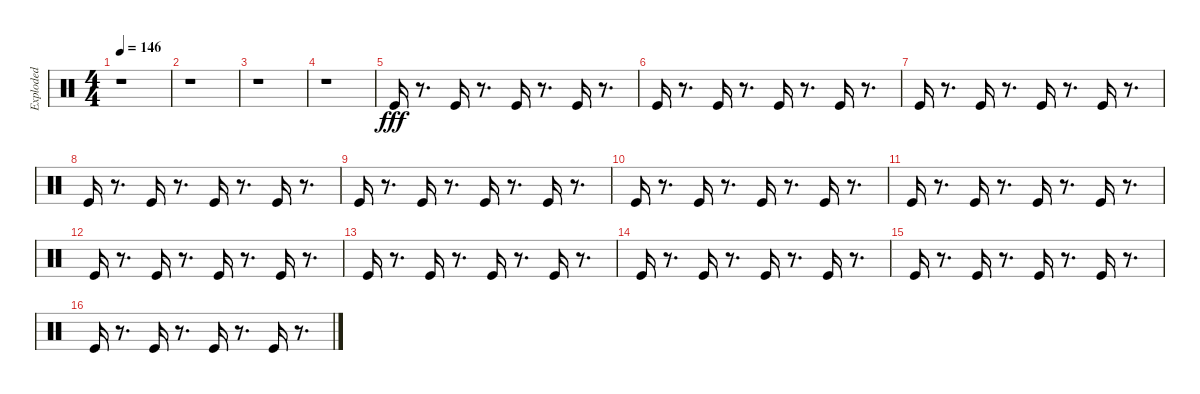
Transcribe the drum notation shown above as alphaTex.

\track ("Exploded" "Exploded") {instrument percussion}
\staff {score}
\articulation defaults
\ts (4 4)
\tempo 146
\clef neutral
\ks c
r.1{dy fff} |
r.1 |
r.1 |
r.1 |
"Kick (hit)".16 r.8{d} "Kick (hit)".16 r.8{d} "Kick (hit)".16 r.8{d} "Kick (hit)".16 r.8{d} |
"Kick (hit)".16 r.8{d} "Kick (hit)".16 r.8{d} "Kick (hit)".16 r.8{d} "Kick (hit)".16 r.8{d} |
"Kick (hit)".16 r.8{d} "Kick (hit)".16 r.8{d} "Kick (hit)".16 r.8{d} "Kick (hit)".16 r.8{d} |
"Kick (hit)".16 r.8{d} "Kick (hit)".16 r.8{d} "Kick (hit)".16 r.8{d} "Kick (hit)".16 r.8{d} |
"Kick (hit)".16 r.8{d} "Kick (hit)".16 r.8{d} "Kick (hit)".16 r.8{d} "Kick (hit)".16 r.8{d} |
"Kick (hit)".16 r.8{d} "Kick (hit)".16 r.8{d} "Kick (hit)".16 r.8{d} "Kick (hit)".16 r.8{d} |
"Kick (hit)".16 r.8{d} "Kick (hit)".16 r.8{d} "Kick (hit)".16 r.8{d} "Kick (hit)".16 r.8{d} |
"Kick (hit)".16 r.8{d} "Kick (hit)".16 r.8{d} "Kick (hit)".16 r.8{d} "Kick (hit)".16 r.8{d} |
"Kick (hit)".16 r.8{d} "Kick (hit)".16 r.8{d} "Kick (hit)".16 r.8{d} "Kick (hit)".16 r.8{d} |
"Kick (hit)".16 r.8{d} "Kick (hit)".16 r.8{d} "Kick (hit)".16 r.8{d} "Kick (hit)".16 r.8{d} |
"Kick (hit)".16 r.8{d} "Kick (hit)".16 r.8{d} "Kick (hit)".16 r.8{d} "Kick (hit)".16 r.8{d} |
"Kick (hit)".16 r.8{d} "Kick (hit)".16 r.8{d} "Kick (hit)".16 r.8{d} "Kick (hit)".16 r.8{d}
